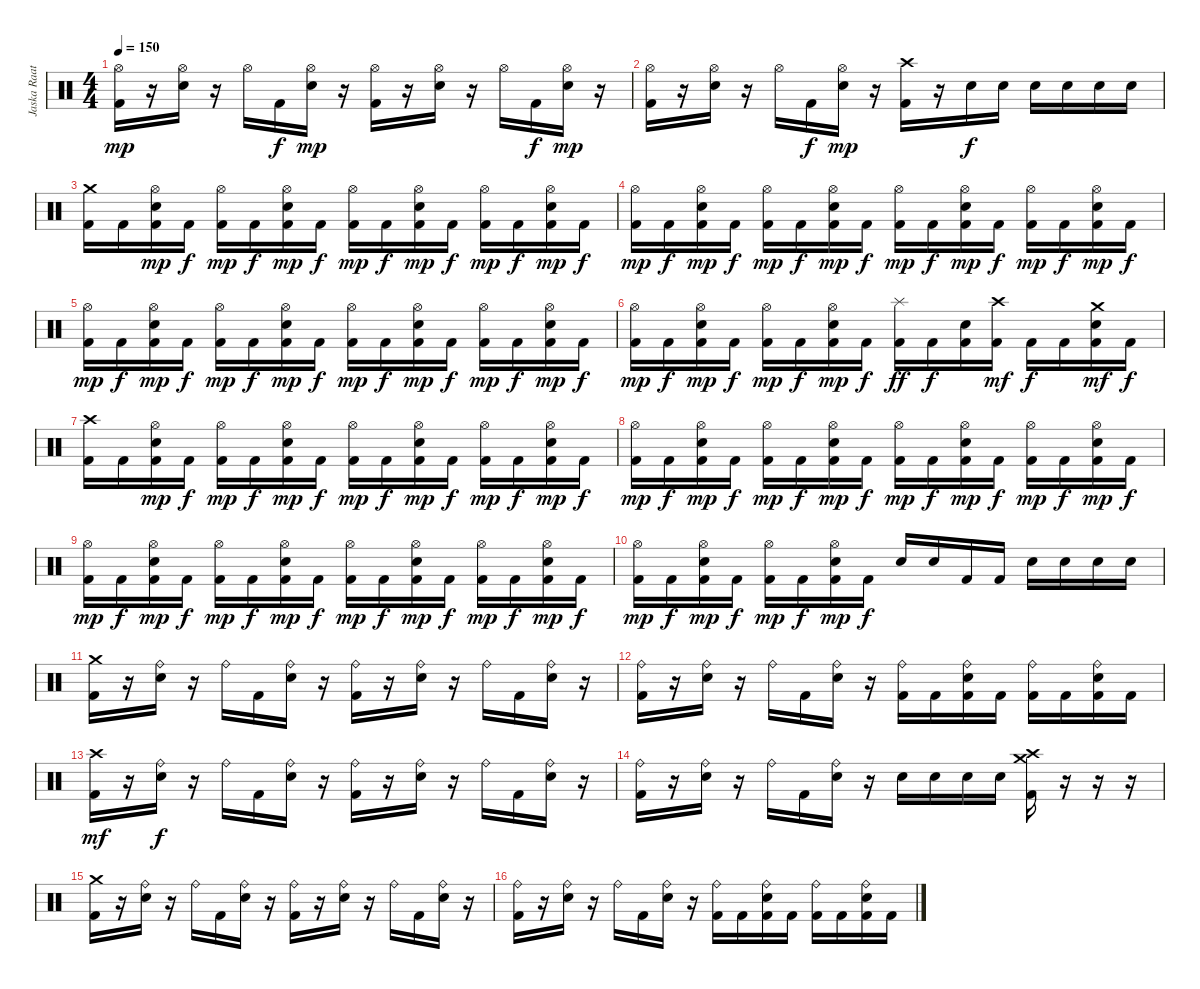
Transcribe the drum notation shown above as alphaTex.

\track ("Jaska Raatikainen" "Jaska Raat") {instrument percussion}
\staff {score}
\articulation defaults
\ts (4 4)
\tempo 150
\clef neutral
\ks c
("Hi-Hat (open)" "Kick (hit) 2").16{dy mp} r.16 ("Hi-Hat (open)" "Electric Snare (hit)").16 r.16 "Hi-Hat (open)".16 "Kick (hit) 2".16{dy f} ("Hi-Hat (open)" "Electric Snare (hit)").16{dy mp} r.16 ("Hi-Hat (open)" "Kick (hit) 2").16 r.16 ("Hi-Hat (open)" "Electric Snare (hit)").16 r.16 "Hi-Hat (open)".16 "Kick (hit) 2".16{dy f} ("Hi-Hat (open)" "Electric Snare (hit)").16{dy mp} r.16 |
("Hi-Hat (open)" "Kick (hit) 2").16 r.16 ("Hi-Hat (open)" "Electric Snare (hit)").16 r.16 "Hi-Hat (open)".16 "Kick (hit) 2".16{dy f} ("Hi-Hat (open)" "Electric Snare (hit)").16{dy mp} r.16 ("Crash high (hit)" "Kick (hit) 2").16 r.16 "Electric Snare (hit)".16{dy f} "Electric Snare (hit)".16 "Electric Snare (hit)".16 "Electric Snare (hit)".16 "Electric Snare (hit)".16 "Electric Snare (hit)".16 |
("Crash medium (hit)" "Kick (hit) 2").16 "Kick (hit) 2".16 ("Hi-Hat (open)" "Electric Snare (hit)" "Kick (hit) 2").16{dy mp} "Kick (hit) 2".16{dy f} ("Hi-Hat (open)" "Kick (hit) 2").16{dy mp} "Kick (hit) 2".16{dy f} ("Hi-Hat (open)" "Electric Snare (hit)" "Kick (hit) 2").16{dy mp} "Kick (hit) 2".16{dy f} ("Hi-Hat (open)" "Kick (hit) 2").16{dy mp} "Kick (hit) 2".16{dy f} ("Hi-Hat (open)" "Electric Snare (hit)" "Kick (hit) 2").16{dy mp} "Kick (hit) 2".16{dy f} ("Hi-Hat (open)" "Kick (hit) 2").16{dy mp} "Kick (hit) 2".16{dy f} ("Hi-Hat (open)" "Electric Snare (hit)" "Kick (hit) 2").16{dy mp} "Kick (hit) 2".16{dy f} |
("Hi-Hat (open)" "Kick (hit) 2").16{dy mp} "Kick (hit) 2".16{dy f} ("Hi-Hat (open)" "Electric Snare (hit)" "Kick (hit) 2").16{dy mp} "Kick (hit) 2".16{dy f} ("Hi-Hat (open)" "Kick (hit) 2").16{dy mp} "Kick (hit) 2".16{dy f} ("Hi-Hat (open)" "Electric Snare (hit)" "Kick (hit) 2").16{dy mp} "Kick (hit) 2".16{dy f} ("Hi-Hat (open)" "Kick (hit) 2").16{dy mp} "Kick (hit) 2".16{dy f} ("Hi-Hat (open)" "Electric Snare (hit)" "Kick (hit) 2").16{dy mp} "Kick (hit) 2".16{dy f} ("Hi-Hat (open)" "Kick (hit) 2").16{dy mp} "Kick (hit) 2".16{dy f} ("Hi-Hat (open)" "Electric Snare (hit)" "Kick (hit) 2").16{dy mp} "Kick (hit) 2".16{dy f} |
("Hi-Hat (open)" "Kick (hit) 2").16{dy mp} "Kick (hit) 2".16{dy f} ("Hi-Hat (open)" "Electric Snare (hit)" "Kick (hit) 2").16{dy mp} "Kick (hit) 2".16{dy f} ("Hi-Hat (open)" "Kick (hit) 2").16{dy mp} "Kick (hit) 2".16{dy f} ("Hi-Hat (open)" "Electric Snare (hit)" "Kick (hit) 2").16{dy mp} "Kick (hit) 2".16{dy f} ("Hi-Hat (open)" "Kick (hit) 2").16{dy mp} "Kick (hit) 2".16{dy f} ("Hi-Hat (open)" "Electric Snare (hit)" "Kick (hit) 2").16{dy mp} "Kick (hit) 2".16{dy f} ("Hi-Hat (open)" "Kick (hit) 2").16{dy mp} "Kick (hit) 2".16{dy f} ("Hi-Hat (open)" "Electric Snare (hit)" "Kick (hit) 2").16{dy mp} "Kick (hit) 2".16{dy f} |
("Hi-Hat (open)" "Kick (hit) 2").16{dy mp} "Kick (hit) 2".16{dy f} ("Hi-Hat (open)" "Electric Snare (hit)" "Kick (hit) 2").16{dy mp} "Kick (hit) 2".16{dy f} ("Hi-Hat (open)" "Kick (hit) 2").16{dy mp} "Kick (hit) 2".16{dy f} ("Hi-Hat (open)" "Electric Snare (hit)" "Kick (hit) 2").16{dy mp} "Kick (hit) 2".16{dy f} ("Splash (hit)" "Kick (hit) 2").16{dy ff} "Kick (hit) 2".16{dy f} ("Electric Snare (hit)" "Kick (hit) 2").16 ("Crash high (hit)" "Kick (hit) 2").16{dy mf} "Kick (hit) 2".16{dy f} "Kick (hit) 2".16 ("Crash medium (hit)" "Electric Snare (hit)" "Kick (hit) 2").16{dy mf} "Kick (hit) 2".16{dy f} |
("Crash high (hit)" "Kick (hit) 2").16 "Kick (hit) 2".16 ("Hi-Hat (open)" "Electric Snare (hit)" "Kick (hit) 2").16{dy mp} "Kick (hit) 2".16{dy f} ("Hi-Hat (open)" "Kick (hit) 2").16{dy mp} "Kick (hit) 2".16{dy f} ("Hi-Hat (open)" "Electric Snare (hit)" "Kick (hit) 2").16{dy mp} "Kick (hit) 2".16{dy f} ("Hi-Hat (open)" "Kick (hit) 2").16{dy mp} "Kick (hit) 2".16{dy f} ("Hi-Hat (open)" "Electric Snare (hit)" "Kick (hit) 2").16{dy mp} "Kick (hit) 2".16{dy f} ("Hi-Hat (open)" "Kick (hit) 2").16{dy mp} "Kick (hit) 2".16{dy f} ("Hi-Hat (open)" "Electric Snare (hit)" "Kick (hit) 2").16{dy mp} "Kick (hit) 2".16{dy f} |
("Hi-Hat (open)" "Kick (hit) 2").16{dy mp} "Kick (hit) 2".16{dy f} ("Hi-Hat (open)" "Electric Snare (hit)" "Kick (hit) 2").16{dy mp} "Kick (hit) 2".16{dy f} ("Hi-Hat (open)" "Kick (hit) 2").16{dy mp} "Kick (hit) 2".16{dy f} ("Hi-Hat (open)" "Electric Snare (hit)" "Kick (hit) 2").16{dy mp} "Kick (hit) 2".16{dy f} ("Hi-Hat (open)" "Kick (hit) 2").16{dy mp} "Kick (hit) 2".16{dy f} ("Hi-Hat (open)" "Electric Snare (hit)" "Kick (hit) 2").16{dy mp} "Kick (hit) 2".16{dy f} ("Hi-Hat (open)" "Kick (hit) 2").16{dy mp} "Kick (hit) 2".16{dy f} ("Hi-Hat (open)" "Electric Snare (hit)" "Kick (hit) 2").16{dy mp} "Kick (hit) 2".16{dy f} |
("Hi-Hat (open)" "Kick (hit) 2").16{dy mp} "Kick (hit) 2".16{dy f} ("Hi-Hat (open)" "Electric Snare (hit)" "Kick (hit) 2").16{dy mp} "Kick (hit) 2".16{dy f} ("Hi-Hat (open)" "Kick (hit) 2").16{dy mp} "Kick (hit) 2".16{dy f} ("Hi-Hat (open)" "Electric Snare (hit)" "Kick (hit) 2").16{dy mp} "Kick (hit) 2".16{dy f} ("Hi-Hat (open)" "Kick (hit) 2").16{dy mp} "Kick (hit) 2".16{dy f} ("Hi-Hat (open)" "Electric Snare (hit)" "Kick (hit) 2").16{dy mp} "Kick (hit) 2".16{dy f} ("Hi-Hat (open)" "Kick (hit) 2").16{dy mp} "Kick (hit) 2".16{dy f} ("Hi-Hat (open)" "Electric Snare (hit)" "Kick (hit) 2").16{dy mp} "Kick (hit) 2".16{dy f} |
("Hi-Hat (open)" "Kick (hit) 2").16{dy mp} "Kick (hit) 2".16{dy f} ("Hi-Hat (open)" "Electric Snare (hit)" "Kick (hit) 2").16{dy mp} "Kick (hit) 2".16{dy f} ("Hi-Hat (open)" "Kick (hit) 2").16{dy mp} "Kick (hit) 2".16{dy f} ("Hi-Hat (open)" "Electric Snare (hit)" "Kick (hit) 2").16{dy mp} "Kick (hit) 2".16{dy f} "Electric Snare (hit)".16 "Electric Snare (hit)".16 "Kick (hit) 2".16 "Kick (hit) 2".16 "Electric Snare (hit)".16 "Electric Snare (hit)".16 "Electric Snare (hit)".16 "Electric Snare (hit)".16 |
("Crash medium (hit)" "Kick (hit) 2").16 r.16 ("Ride (bell)" "Electric Snare (hit)").16 r.16 "Ride (bell)".16 "Kick (hit) 2".16 ("Ride (bell)" "Electric Snare (hit)").16 r.16 ("Ride (bell)" "Kick (hit) 2").16 r.16 ("Ride (bell)" "Electric Snare (hit)").16 r.16 "Ride (bell)".16 "Kick (hit) 2".16 ("Ride (bell)" "Electric Snare (hit)").16 r.16 |
("Ride (bell)" "Kick (hit) 2").16 r.16 ("Ride (bell)" "Electric Snare (hit)").16 r.16 "Ride (bell)".16 "Kick (hit) 2".16 ("Ride (bell)" "Electric Snare (hit)").16 r.16 ("Ride (bell)" "Kick (hit) 2").16 "Kick (hit) 2".16 ("Ride (bell)" "Electric Snare (hit)" "Kick (hit) 2").16 "Kick (hit) 2".16 ("Ride (bell)" "Kick (hit) 2").16 "Kick (hit) 2".16 ("Ride (bell)" "Electric Snare (hit)" "Kick (hit) 2").16 "Kick (hit) 2".16 |
("Crash high (hit)" "Kick (hit) 2").16{dy mf} r.16 ("Ride (bell)" "Electric Snare (hit)").16{dy f} r.16 "Ride (bell)".16 "Kick (hit) 2".16 ("Ride (bell)" "Electric Snare (hit)").16 r.16 ("Ride (bell)" "Kick (hit) 2").16 r.16 ("Ride (bell)" "Electric Snare (hit)").16 r.16 "Ride (bell)".16 "Kick (hit) 2".16 ("Ride (bell)" "Electric Snare (hit)").16 r.16 |
("Ride (bell)" "Kick (hit) 2").16 r.16 ("Ride (bell)" "Electric Snare (hit)").16 r.16 "Ride (bell)".16 "Kick (hit) 2".16 ("Ride (bell)" "Electric Snare (hit)").16 r.16 "Electric Snare (hit)".16 "Electric Snare (hit)".16 "Electric Snare (hit)".16 "Electric Snare (hit)".16 ("Crash medium (hit)" "Crash high (hit)" "Kick (hit) 2").16 r.16 r.16 r.16 |
("Crash medium (hit)" "Kick (hit) 2").16 r.16 ("Ride (bell)" "Electric Snare (hit)").16 r.16 "Ride (bell)".16 "Kick (hit) 2".16 ("Ride (bell)" "Electric Snare (hit)").16 r.16 ("Ride (bell)" "Kick (hit) 2").16 r.16 ("Ride (bell)" "Electric Snare (hit)").16 r.16 "Ride (bell)".16 "Kick (hit) 2".16 ("Ride (bell)" "Electric Snare (hit)").16 r.16 |
("Ride (bell)" "Kick (hit) 2").16 r.16 ("Ride (bell)" "Electric Snare (hit)").16 r.16 "Ride (bell)".16 "Kick (hit) 2".16 ("Ride (bell)" "Electric Snare (hit)").16 r.16 ("Ride (bell)" "Kick (hit) 2").16 "Kick (hit) 2".16 ("Ride (bell)" "Electric Snare (hit)" "Kick (hit) 2").16 "Kick (hit) 2".16 ("Ride (bell)" "Kick (hit) 2").16 "Kick (hit) 2".16 ("Ride (bell)" "Electric Snare (hit)" "Kick (hit) 2").16 "Kick (hit) 2".16
